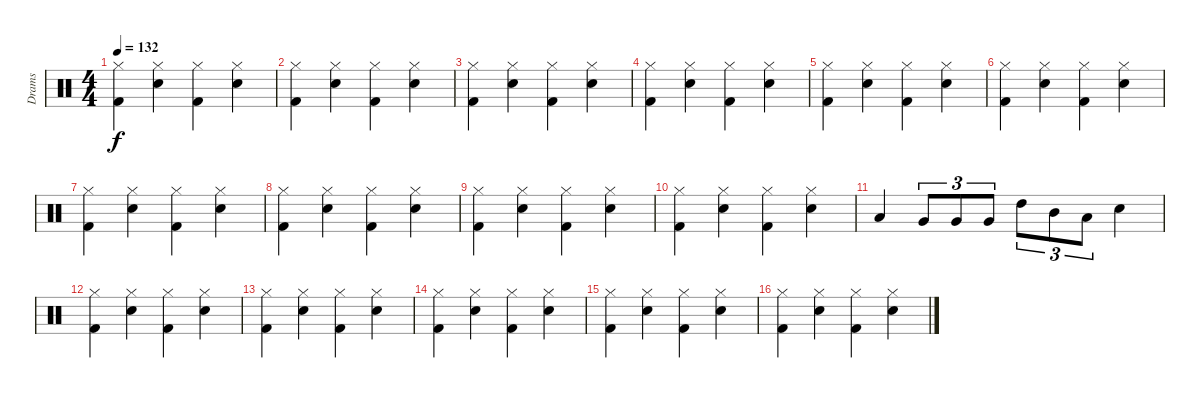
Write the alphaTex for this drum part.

\track ("Drams" "Drams") {instrument percussion}
\staff {score}
\articulation defaults
\ts (4 4)
\tempo 132
\clef neutral
\ks c
("Hi-Hat (closed)" "Kick (hit) 2").4{dy f} ("Hi-Hat (closed)" "Snare (hit) 2").4 ("Hi-Hat (closed)" "Kick (hit) 2").4 ("Hi-Hat (closed)" "Snare (hit) 2").4 |
("Hi-Hat (closed)" "Kick (hit) 2").4 ("Hi-Hat (closed)" "Snare (hit) 2").4 ("Hi-Hat (closed)" "Kick (hit) 2").4 ("Hi-Hat (closed)" "Snare (hit) 2").4 |
("Hi-Hat (closed)" "Kick (hit) 2").4 ("Hi-Hat (closed)" "Snare (hit) 2").4 ("Hi-Hat (closed)" "Kick (hit) 2").4 ("Hi-Hat (closed)" "Snare (hit) 2").4 |
("Hi-Hat (closed)" "Kick (hit) 2").4 ("Hi-Hat (closed)" "Snare (hit) 2").4 ("Hi-Hat (closed)" "Kick (hit) 2").4 ("Hi-Hat (closed)" "Snare (hit) 2").4 |
("Hi-Hat (closed)" "Kick (hit) 2").4 ("Hi-Hat (closed)" "Snare (hit) 2").4 ("Hi-Hat (closed)" "Kick (hit) 2").4 ("Hi-Hat (closed)" "Snare (hit) 2").4 |
("Hi-Hat (closed)" "Kick (hit) 2").4 ("Hi-Hat (closed)" "Snare (hit) 2").4 ("Hi-Hat (closed)" "Kick (hit) 2").4 ("Hi-Hat (closed)" "Snare (hit) 2").4 |
("Hi-Hat (closed)" "Kick (hit) 2").4 ("Hi-Hat (closed)" "Snare (hit) 2").4 ("Hi-Hat (closed)" "Kick (hit) 2").4 ("Hi-Hat (closed)" "Snare (hit) 2").4 |
("Hi-Hat (closed)" "Kick (hit) 2").4 ("Hi-Hat (closed)" "Snare (hit) 2").4 ("Hi-Hat (closed)" "Kick (hit) 2").4 ("Hi-Hat (closed)" "Snare (hit) 2").4 |
("Hi-Hat (closed)" "Kick (hit) 2").4 ("Hi-Hat (closed)" "Snare (hit) 2").4 ("Hi-Hat (closed)" "Kick (hit) 2").4 ("Hi-Hat (closed)" "Snare (hit) 2").4 |
("Hi-Hat (closed)" "Kick (hit) 2").4 ("Hi-Hat (closed)" "Snare (hit) 2").4 ("Hi-Hat (closed)" "Kick (hit) 2").4 ("Hi-Hat (closed)" "Snare (hit) 2").4 |
"Low Floor Tom (hit)".4 "Very Low Tom (hit)".8{tu (3 2)} "Very Low Tom (hit)".8{tu (3 2)} "Very Low Tom (hit)".8{tu (3 2)} "High Tom (hit)".8{tu (3 2)} "Mid Tom (hit)".8{tu (3 2)} "Low Tom (hit)".8{tu (3 2)} "Snare (hit) 2".4 |
("Hi-Hat (closed)" "Kick (hit) 2").4 ("Hi-Hat (closed)" "Snare (hit) 2").4 ("Hi-Hat (closed)" "Kick (hit) 2").4 ("Hi-Hat (closed)" "Snare (hit) 2").4 |
("Hi-Hat (closed)" "Kick (hit) 2").4 ("Hi-Hat (closed)" "Snare (hit) 2").4 ("Hi-Hat (closed)" "Kick (hit) 2").4 ("Hi-Hat (closed)" "Snare (hit) 2").4 |
("Hi-Hat (closed)" "Kick (hit) 2").4 ("Hi-Hat (closed)" "Snare (hit) 2").4 ("Hi-Hat (closed)" "Kick (hit) 2").4 ("Hi-Hat (closed)" "Snare (hit) 2").4 |
("Hi-Hat (closed)" "Kick (hit) 2").4 ("Hi-Hat (closed)" "Snare (hit) 2").4 ("Hi-Hat (closed)" "Kick (hit) 2").4 ("Hi-Hat (closed)" "Snare (hit) 2").4 |
("Hi-Hat (closed)" "Kick (hit) 2").4 ("Hi-Hat (closed)" "Snare (hit) 2").4 ("Hi-Hat (closed)" "Kick (hit) 2").4 ("Hi-Hat (closed)" "Snare (hit) 2").4
